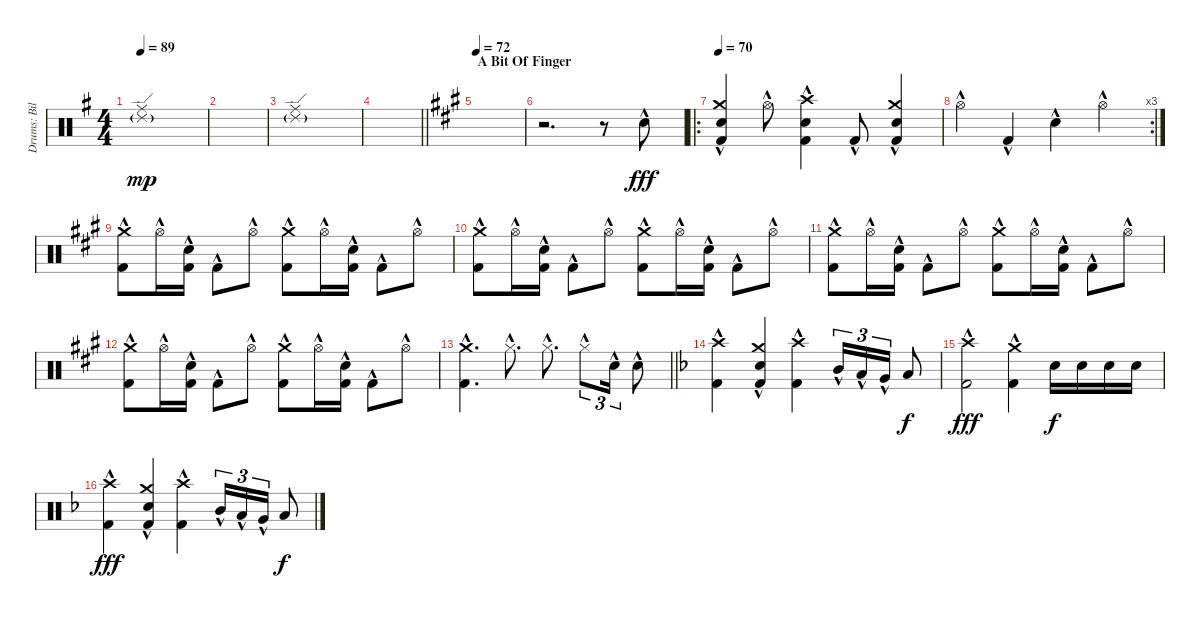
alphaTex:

\track ("Drums: Bill" "Drums: Bil") {instrument percussion}
\staff {score}
\articulation defaults
\ts (4 4)
\tempo 89
\clef neutral
\ks g
("Ride (middle)" "Ride (edge) 2"{g}).1{dy mp} |
|
("Ride (middle)" "Ride (edge) 2"{g}).1 |
\barLineRight lightlight
|
\section ("" "A Bit Of Finger")
\tempo 72
\ks a
|
r.2{d} r.8 "Snare (hit) 2"{hac}.8{dy fff} |
\ro
\tempo 70
("Crash medium (hit)"{hac} "Snare (hit) 2"{hac} "Kick (hit) 2"{hac}).4 "Hi-Hat (open)"{hac}.8 ("Crash high (hit)"{hac} "Snare (hit) 2"{hac} "Kick (hit) 2"{hac}).4 "Kick (hit) 2"{hac}.8 ("Crash medium (hit)"{hac} "Snare (hit) 2"{hac} "Kick (hit) 2"{hac}).4 |
\rc 3 "Hi-Hat (open)"{hac}.4 "Kick (hit) 2"{hac}.4 "Snare (hit) 2"{hac}.4 "Hi-Hat (open)"{hac}.4
|
("Crash medium (hit)"{hac} "Kick (hit) 2"{hac}).8 "Hi-Hat (open)"{hac}.16 ("Snare (hit) 2"{hac} "Kick (hit) 2"{hac}).16 "Kick (hit) 2"{hac}.8 "Hi-Hat (open)"{hac}.8 ("Crash medium (hit)"{hac} "Kick (hit) 2"{hac}).8 "Hi-Hat (open)"{hac}.16 ("Snare (hit) 2"{hac} "Kick (hit) 2"{hac}).16 "Kick (hit) 2"{hac}.8 "Hi-Hat (open)"{hac}.8 |
("Crash medium (hit)"{hac} "Kick (hit) 2"{hac}).8 "Hi-Hat (open)"{hac}.16 ("Snare (hit) 2"{hac} "Kick (hit) 2"{hac}).16 "Kick (hit) 2"{hac}.8 "Hi-Hat (open)"{hac}.8 ("Crash medium (hit)"{hac} "Kick (hit) 2"{hac}).8 "Hi-Hat (open)"{hac}.16 ("Snare (hit) 2"{hac} "Kick (hit) 2"{hac}).16 "Kick (hit) 2"{hac}.8 "Hi-Hat (open)"{hac}.8 |
("Crash medium (hit)"{hac} "Kick (hit) 2"{hac}).8 "Hi-Hat (open)"{hac}.16 ("Snare (hit) 2"{hac} "Kick (hit) 2"{hac}).16 "Kick (hit) 2"{hac}.8 "Hi-Hat (open)"{hac}.8 ("Crash medium (hit)"{hac} "Kick (hit) 2"{hac}).8 "Hi-Hat (open)"{hac}.16 ("Snare (hit) 2"{hac} "Kick (hit) 2"{hac}).16 "Kick (hit) 2"{hac}.8 "Hi-Hat (open)"{hac}.8 |
("Crash medium (hit)"{hac} "Kick (hit) 2"{hac}).8 "Hi-Hat (open)"{hac}.16 ("Snare (hit) 2"{hac} "Kick (hit) 2"{hac}).16 "Kick (hit) 2"{hac}.8 "Hi-Hat (open)"{hac}.8 ("Crash medium (hit)"{hac} "Kick (hit) 2"{hac}).8 "Hi-Hat (open)"{hac}.16 ("Snare (hit) 2"{hac} "Kick (hit) 2"{hac}).16 "Kick (hit) 2"{hac}.8 "Hi-Hat (open)"{hac}.8 |
\barLineRight lightlight
("Crash medium (hit)"{hac} "Kick (hit) 2"{hac}).4{d} "Hi-Hat (closed)"{hac}.8{d} "Hi-Hat (closed)"{hac}.8{d} "Hi-Hat (closed)"{hac}.8{tu (3 2)} "Snare (hit) 2"{hac}.16{tu (3 2)} "Snare (hit) 2"{hac}.8 |
\ks f
("Crash high (hit)"{hac} "Kick (hit) 2"{hac}).4 ("Crash medium (hit)"{hac} "Snare (hit) 2"{hac} "Kick (hit) 2"{hac}).4 ("Crash high (hit)"{hac} "Kick (hit) 2"{hac}).4 "Mid Tom (hit)"{hac}.16{tu (3 2)} "Low Tom (hit)"{hac}.16{tu (3 2)} "Very Low Tom (hit)"{hac}.16{tu (3 2)} "Low Floor Tom (hit)".8{dy f} |
("Crash high (hit)"{hac} "Kick (hit) 2"{hac}).2{dy fff} ("Crash medium (hit)"{hac} "Kick (hit) 2"{hac}).4 "Electric Snare (hit)".16{dy f} "Electric Snare (hit)".16 "Electric Snare (hit)".16 "Snare (hit) 2".16 |
("Crash high (hit)"{hac} "Kick (hit) 2"{hac}).4{dy fff} ("Crash medium (hit)"{hac} "Snare (hit) 2"{hac} "Kick (hit) 2"{hac}).4 ("Crash high (hit)"{hac} "Kick (hit) 2"{hac}).4 "Mid Tom (hit)"{hac}.16{tu (3 2)} "Low Tom (hit)"{hac}.16{tu (3 2)} "Very Low Tom (hit)"{hac}.16{tu (3 2)} "Low Floor Tom (hit)".8{dy f}
